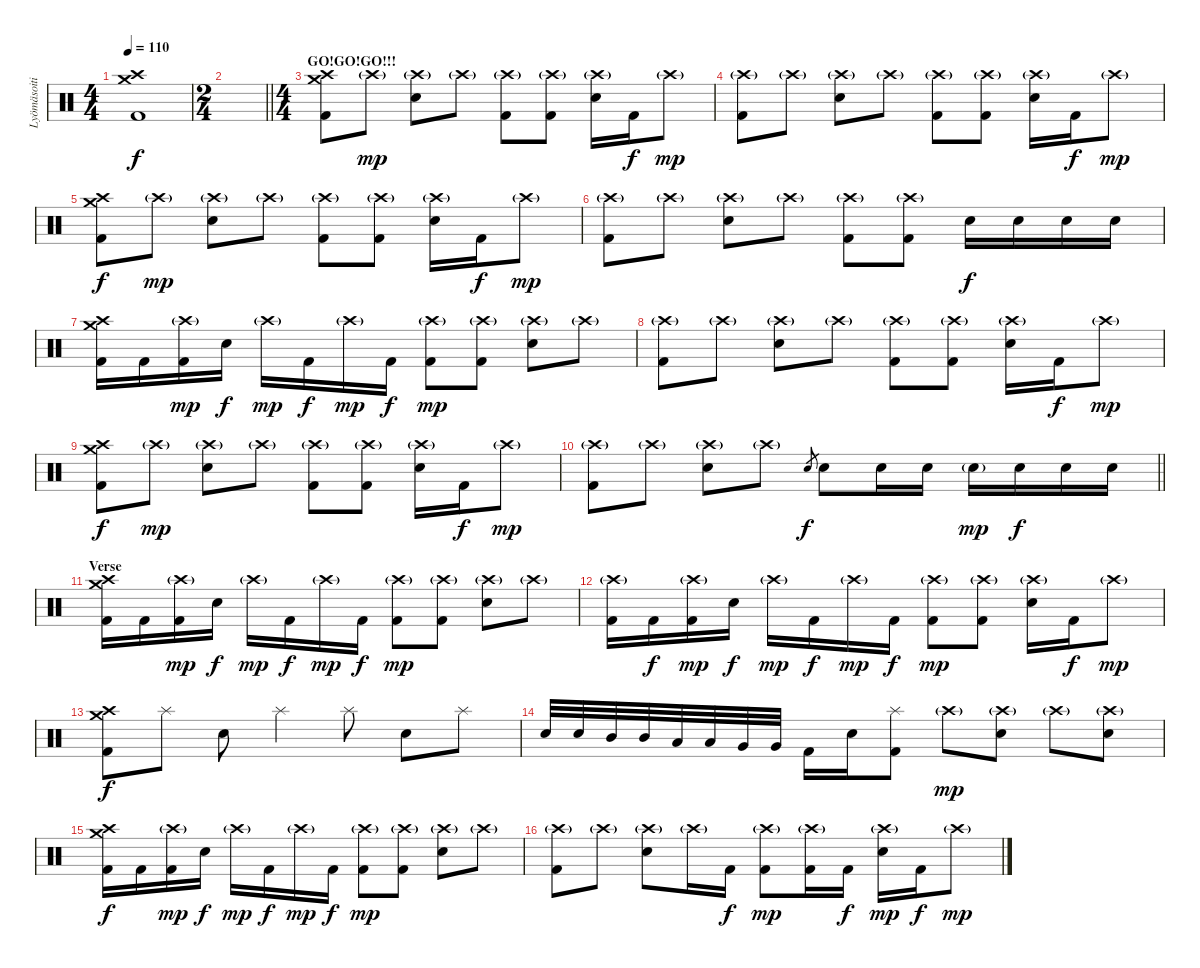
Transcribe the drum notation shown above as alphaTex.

\track ("Lyömäsoitin" "Lyömäsoiti") {instrument percussion}
\staff {score}
\articulation defaults
\ts (4 4)
\tempo 110
\clef neutral
\ks c
("Crash medium (hit)" "Crash high (hit)" "Kick (hit) 2").1{dy f} |
\ts (2 4)
\barLineRight lightlight
|
\ts (4 4)
\section ("" "GO!GO!GO!!!")
("Crash medium (hit)" "Crash high (hit)" "Kick (hit) 2").8 "Crash high (hit)"{g}.8{dy mp} ("Crash high (hit)"{g} "Electric Snare (hit)").8 "Crash high (hit)"{g}.8 ("Crash high (hit)"{g} "Kick (hit) 2").8 ("Crash high (hit)"{g} "Kick (hit) 2").8 ("Crash high (hit)"{g} "Electric Snare (hit)").16 "Kick (hit) 2".16{dy f} "Crash high (hit)"{g}.8{dy mp} |
("Crash high (hit)"{g} "Kick (hit) 2").8 "Crash high (hit)"{g}.8 ("Crash high (hit)"{g} "Electric Snare (hit)").8 "Crash high (hit)"{g}.8 ("Crash high (hit)"{g} "Kick (hit) 2").8 ("Crash high (hit)"{g} "Kick (hit) 2").8 ("Crash high (hit)"{g} "Electric Snare (hit)").16 "Kick (hit) 2".16{dy f} "Crash high (hit)"{g}.8{dy mp} |
("Crash medium (hit)" "Crash high (hit)" "Kick (hit) 2").8{dy f} "Crash high (hit)"{g}.8{dy mp} ("Crash high (hit)"{g} "Electric Snare (hit)").8 "Crash high (hit)"{g}.8 ("Crash high (hit)"{g} "Kick (hit) 2").8 ("Crash high (hit)"{g} "Kick (hit) 2").8 ("Crash high (hit)"{g} "Electric Snare (hit)").16 "Kick (hit) 2".16{dy f} "Crash high (hit)"{g}.8{dy mp} |
("Crash high (hit)"{g} "Kick (hit) 2").8 "Crash high (hit)"{g}.8 ("Crash high (hit)"{g} "Electric Snare (hit)").8 "Crash high (hit)"{g}.8 ("Crash high (hit)"{g} "Kick (hit) 2").8 ("Crash high (hit)"{g} "Kick (hit) 2").8 "Electric Snare (hit)".16{dy f} "Electric Snare (hit)".16 "Electric Snare (hit)".16 "Electric Snare (hit)".16 |
("Crash medium (hit)" "Crash high (hit)" "Kick (hit) 2").16 "Kick (hit) 2".16 ("Crash high (hit)"{g} "Kick (hit) 2").16{dy mp} "Electric Snare (hit)".16{dy f} "Crash high (hit)"{g}.16{dy mp} "Kick (hit) 2".16{dy f} "Crash high (hit)"{g}.16{dy mp} "Kick (hit) 2".16{dy f} ("Crash high (hit)"{g} "Kick (hit) 2").8{dy mp} ("Crash high (hit)"{g} "Kick (hit) 2").8 ("Crash high (hit)"{g} "Electric Snare (hit)").8 "Crash high (hit)"{g}.8 |
("Crash high (hit)"{g} "Kick (hit) 2").8 "Crash high (hit)"{g}.8 ("Crash high (hit)"{g} "Electric Snare (hit)").8 "Crash high (hit)"{g}.8 ("Crash high (hit)"{g} "Kick (hit) 2").8 ("Crash high (hit)"{g} "Kick (hit) 2").8 ("Crash high (hit)"{g} "Electric Snare (hit)").16 "Kick (hit) 2".16{dy f} "Crash high (hit)"{g}.8{dy mp} |
("Crash medium (hit)" "Crash high (hit)" "Kick (hit) 2").8{dy f} "Crash high (hit)"{g}.8{dy mp} ("Crash high (hit)"{g} "Electric Snare (hit)").8 "Crash high (hit)"{g}.8 ("Crash high (hit)"{g} "Kick (hit) 2").8 ("Crash high (hit)"{g} "Kick (hit) 2").8 ("Crash high (hit)"{g} "Electric Snare (hit)").16 "Kick (hit) 2".16{dy f} "Crash high (hit)"{g}.8{dy mp} |
\barLineRight lightlight
("Crash high (hit)"{g} "Kick (hit) 2").8 "Crash high (hit)"{g}.8 ("Crash high (hit)"{g} "Electric Snare (hit)").8 "Crash high (hit)"{g}.8 "Electric Snare (hit)".8{gr dy f} "Electric Snare (hit)".8 "Electric Snare (hit)".16 "Electric Snare (hit)".16 "Electric Snare (hit)"{g}.16{dy mp} "Electric Snare (hit)".16{dy f} "Electric Snare (hit)".16 "Electric Snare (hit)".16 |
\section ("" "Verse")
("Crash medium (hit)" "Crash high (hit)" "Kick (hit) 2").16 "Kick (hit) 2".16 ("Crash high (hit)"{g} "Kick (hit) 2").16{dy mp} "Electric Snare (hit)".16{dy f} "Crash high (hit)"{g}.16{dy mp} "Kick (hit) 2".16{dy f} "Crash high (hit)"{g}.16{dy mp} "Kick (hit) 2".16{dy f} ("Crash high (hit)"{g} "Kick (hit) 2").8{dy mp} ("Crash high (hit)"{g} "Kick (hit) 2").8 ("Crash high (hit)"{g} "Electric Snare (hit)").8 "Crash high (hit)"{g}.8 |
("Crash high (hit)"{g} "Kick (hit) 2").16 "Kick (hit) 2".16{dy f} ("Crash high (hit)"{g} "Kick (hit) 2").16{dy mp} "Electric Snare (hit)".16{dy f} "Crash high (hit)"{g}.16{dy mp} "Kick (hit) 2".16{dy f} "Crash high (hit)"{g}.16{dy mp} "Kick (hit) 2".16{dy f} ("Crash high (hit)"{g} "Kick (hit) 2").8{dy mp} ("Crash high (hit)"{g} "Kick (hit) 2").8 ("Crash high (hit)"{g} "Electric Snare (hit)").16 "Kick (hit) 2".16{dy f} "Crash high (hit)"{g}.8{dy mp} |
("Crash medium (hit)" "Crash high (hit)" "Kick (hit) 2").8{dy f} "Splash (hit)".8 "Electric Snare (hit)".8 "Splash (hit)".4 "Splash (hit)".8 "Electric Snare (hit)".8 "Splash (hit)".8 |
"Electric Snare (hit)".32 "Electric Snare (hit)".32 "Mid Tom (hit)".32 "Mid Tom (hit)".32 "Low Tom (hit)".32 "Low Tom (hit)".32 "Very Low Tom (hit)".32 "Very Low Tom (hit)".32 "Kick (hit) 2".16 "Electric Snare (hit)".16 ("Splash (hit)" "Kick (hit) 2").8 "Crash high (hit)"{g}.8{dy mp} ("Crash high (hit)"{g} "Electric Snare (hit)").8 "Crash high (hit)"{g}.8 ("Crash high (hit)"{g} "Electric Snare (hit)").8 |
("Crash medium (hit)" "Crash high (hit)" "Kick (hit) 2").16{dy f} "Kick (hit) 2".16 ("Crash high (hit)"{g} "Kick (hit) 2").16{dy mp} "Electric Snare (hit)".16{dy f} "Crash high (hit)"{g}.16{dy mp} "Kick (hit) 2".16{dy f} "Crash high (hit)"{g}.16{dy mp} "Kick (hit) 2".16{dy f} ("Crash high (hit)"{g} "Kick (hit) 2").8{dy mp} ("Crash high (hit)"{g} "Kick (hit) 2").8 ("Crash high (hit)"{g} "Electric Snare (hit)").8 "Crash high (hit)"{g}.8 |
("Crash high (hit)"{g} "Kick (hit) 2").8 "Crash high (hit)"{g}.8 ("Crash high (hit)"{g} "Electric Snare (hit)").8 "Crash high (hit)"{g}.16 "Kick (hit) 2".16{dy f} ("Crash high (hit)"{g} "Kick (hit) 2").8{dy mp} ("Crash high (hit)"{g} "Kick (hit) 2").16 "Kick (hit) 2".16{dy f} ("Crash high (hit)"{g} "Electric Snare (hit)").16{dy mp} "Kick (hit) 2".16{dy f} "Crash high (hit)"{g}.8{dy mp}
